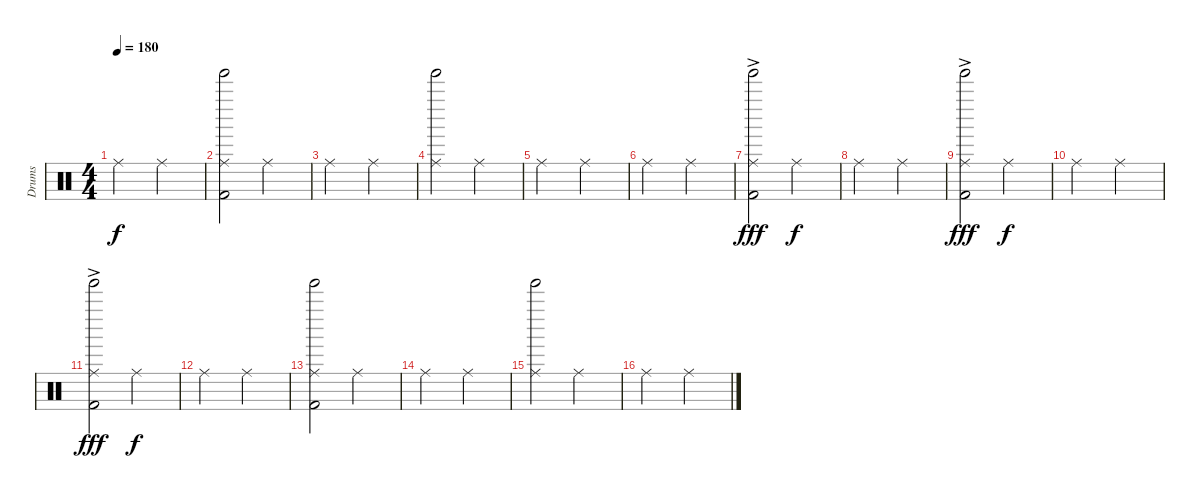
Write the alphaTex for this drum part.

\track ("Drums" "Drums") {instrument percussion}
\staff {score}
\articulation defaults
\ts (4 4)
\tempo 180
\clef neutral
\ks c "Ride (middle)".2{dy f} "Ride (middle)".2
|
("Ride (middle)" "Kick (hit) 2" "Tinkle Bell (hit)").2 "Ride (middle)".2 |
"Ride (middle)".2 "Ride (middle)".2 |
("Ride (middle)" "Tinkle Bell (hit)").2 "Ride (middle)".2 |
"Ride (middle)".2 "Ride (middle)".2 |
"Ride (middle)".2 "Ride (middle)".2 |
("Ride (middle)" "Kick (hit) 2"{ac} "Tinkle Bell (hit)").2{dy fff} "Ride (middle)".2{dy f} |
"Ride (middle)".2 "Ride (middle)".2 |
("Ride (middle)" "Kick (hit) 2"{ac} "Tinkle Bell (hit)").2{dy fff} "Ride (middle)".2{dy f} |
"Ride (middle)".2 "Ride (middle)".2 |
("Ride (middle)" "Kick (hit) 2"{ac} "Tinkle Bell (hit)").2{dy fff} "Ride (middle)".2{dy f} |
"Ride (middle)".2 "Ride (middle)".2 |
("Ride (middle)" "Kick (hit) 2" "Tinkle Bell (hit)").2 "Ride (middle)".2 |
"Ride (middle)".2 "Ride (middle)".2 |
("Ride (middle)" "Tinkle Bell (hit)").2 "Ride (middle)".2 |
"Ride (middle)".2 "Ride (middle)".2
